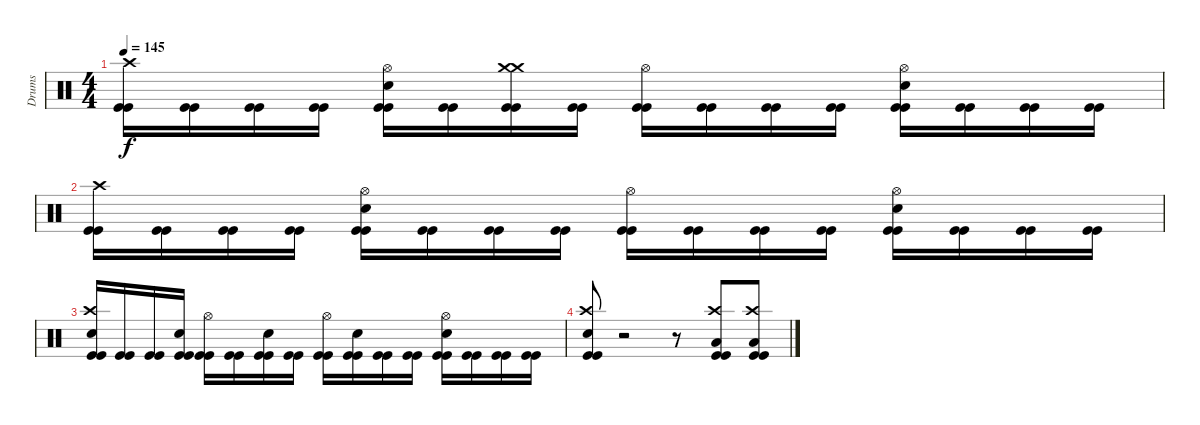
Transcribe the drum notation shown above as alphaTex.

\track ("Drums" "Drums") {instrument percussion}
\staff {score}
\articulation defaults
\ts (4 4)
\tempo 145
\clef neutral
\ks c
("Kick (hit)" "Kick (hit)" "Crash high (hit)").16{dy f} ("Kick (hit)" "Kick (hit)").16 ("Kick (hit)" "Kick (hit)").16 ("Kick (hit)" "Kick (hit)").16 ("Kick (hit)" "Kick (hit)" "Snare (hit) 2" "Hi-Hat (open)").16 ("Kick (hit)" "Kick (hit)").16 ("Kick (hit)" "Kick (hit)" "Crash medium (hit)" "Crash medium (hit)").16 ("Kick (hit)" "Kick (hit)").16 ("Kick (hit)" "Kick (hit)" "Hi-Hat (open)").16 ("Kick (hit)" "Kick (hit)").16 ("Kick (hit)" "Kick (hit)").16 ("Kick (hit)" "Kick (hit)").16 ("Kick (hit)" "Kick (hit)" "Snare (hit) 2" "Hi-Hat (open)").16 ("Kick (hit)" "Kick (hit)").16 ("Kick (hit)" "Kick (hit)").16 ("Kick (hit)" "Kick (hit)").16 |
("Kick (hit)" "Kick (hit)" "Crash high (hit)").16 ("Kick (hit)" "Kick (hit)").16 ("Kick (hit)" "Kick (hit)").16 ("Kick (hit)" "Kick (hit)").16 ("Kick (hit)" "Kick (hit)" "Snare (hit) 2" "Hi-Hat (open)").16 ("Kick (hit)" "Kick (hit)").16 ("Kick (hit)" "Kick (hit)").16 ("Kick (hit)" "Kick (hit)").16 ("Kick (hit)" "Kick (hit)" "Hi-Hat (open)").16 ("Kick (hit)" "Kick (hit)").16 ("Kick (hit)" "Kick (hit)").16 ("Kick (hit)" "Kick (hit)").16 ("Kick (hit)" "Kick (hit)" "Snare (hit) 2" "Hi-Hat (open)").16 ("Kick (hit)" "Kick (hit)").16 ("Kick (hit)" "Kick (hit)").16 ("Kick (hit)" "Kick (hit)").16 |
("Kick (hit)" "Kick (hit)" "Snare (hit) 2" "Crash high (hit)").16 ("Kick (hit)" "Kick (hit)").16 ("Kick (hit)" "Kick (hit)").16 ("Kick (hit)" "Kick (hit)" "Snare (hit) 2").16 ("Kick (hit)" "Kick (hit)" "Hi-Hat (open)").16 ("Kick (hit)" "Kick (hit)").16 ("Kick (hit)" "Kick (hit)" "Snare (hit) 2").16 ("Kick (hit)" "Kick (hit)").16 ("Kick (hit)" "Kick (hit)" "Hi-Hat (open)").16 ("Kick (hit)" "Kick (hit)" "Snare (hit) 2").16 ("Kick (hit)" "Kick (hit)").16 ("Kick (hit)" "Kick (hit)").16 ("Kick (hit)" "Kick (hit)" "Snare (hit) 2" "Hi-Hat (open)").16 ("Kick (hit)" "Kick (hit)").16 ("Kick (hit)" "Kick (hit)").16 ("Kick (hit)" "Kick (hit)").16 |
("Kick (hit)" "Kick (hit)" "Snare (hit) 2" "Crash high (hit)").8 r.2 r.8 ("Kick (hit)" "Kick (hit)" "Low Floor Tom (hit)" "Crash high (hit)").8 ("Kick (hit)" "Kick (hit)" "Low Floor Tom (hit)" "Crash high (hit)").8
